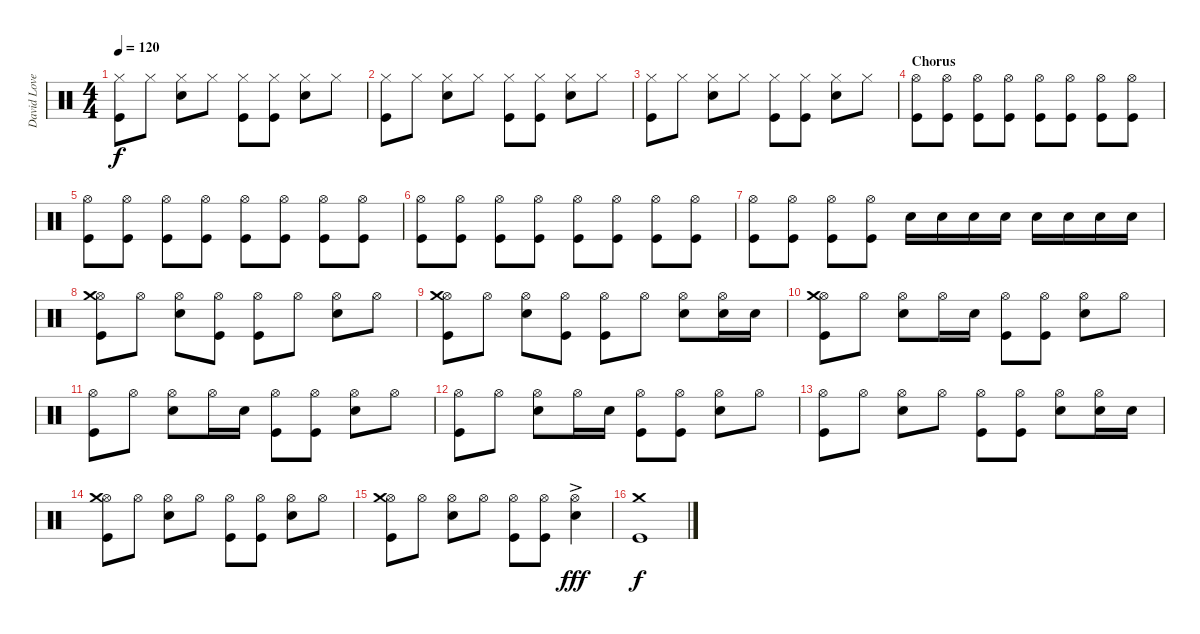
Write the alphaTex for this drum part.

\track ("David Lovering" "David Love") {instrument percussion}
\staff {score}
\articulation defaults
\ts (4 4)
\tempo 120
\clef neutral
\ks c
("Hi-Hat (closed)" "Kick (hit)").8{dy f} "Hi-Hat (closed)".8 ("Hi-Hat (closed)" "Snare (hit) 2").8 "Hi-Hat (closed)".8 ("Hi-Hat (closed)" "Kick (hit)").8 ("Hi-Hat (closed)" "Kick (hit)").8 ("Hi-Hat (closed)" "Snare (hit) 2").8 "Hi-Hat (closed)".8 |
("Hi-Hat (closed)" "Kick (hit)").8 "Hi-Hat (closed)".8 ("Hi-Hat (closed)" "Snare (hit) 2").8 "Hi-Hat (closed)".8 ("Hi-Hat (closed)" "Kick (hit)").8 ("Hi-Hat (closed)" "Kick (hit)").8 ("Hi-Hat (closed)" "Snare (hit) 2").8 "Hi-Hat (closed)".8 |
("Hi-Hat (closed)" "Kick (hit)").8 "Hi-Hat (closed)".8 ("Hi-Hat (closed)" "Snare (hit) 2").8 "Hi-Hat (closed)".8 ("Hi-Hat (closed)" "Kick (hit)").8 ("Hi-Hat (closed)" "Kick (hit)").8 ("Hi-Hat (closed)" "Snare (hit) 2").8 "Hi-Hat (closed)".8 |
\section ("" "Chorus")
("Hi-Hat (open)" "Kick (hit)").8 ("Hi-Hat (open)" "Kick (hit)").8 ("Hi-Hat (open)" "Kick (hit)").8 ("Hi-Hat (open)" "Kick (hit)").8 ("Hi-Hat (open)" "Kick (hit)").8 ("Hi-Hat (open)" "Kick (hit)").8 ("Hi-Hat (open)" "Kick (hit)").8 ("Hi-Hat (open)" "Kick (hit)").8 |
("Hi-Hat (open)" "Kick (hit)").8 ("Hi-Hat (open)" "Kick (hit)").8 ("Hi-Hat (open)" "Kick (hit)").8 ("Hi-Hat (open)" "Kick (hit)").8 ("Hi-Hat (open)" "Kick (hit)").8 ("Hi-Hat (open)" "Kick (hit)").8 ("Hi-Hat (open)" "Kick (hit)").8 ("Hi-Hat (open)" "Kick (hit)").8 |
("Hi-Hat (open)" "Kick (hit)").8 ("Hi-Hat (open)" "Kick (hit)").8 ("Hi-Hat (open)" "Kick (hit)").8 ("Hi-Hat (open)" "Kick (hit)").8 ("Hi-Hat (open)" "Kick (hit)").8 ("Hi-Hat (open)" "Kick (hit)").8 ("Hi-Hat (open)" "Kick (hit)").8 ("Hi-Hat (open)" "Kick (hit)").8 |
("Hi-Hat (open)" "Kick (hit)").8 ("Hi-Hat (open)" "Kick (hit)").8 ("Hi-Hat (open)" "Kick (hit)").8 ("Hi-Hat (open)" "Kick (hit)").8 "Snare (hit) 2".16 "Snare (hit) 2".16 "Snare (hit) 2".16 "Snare (hit) 2".16 "Snare (hit) 2".16 "Snare (hit) 2".16 "Snare (hit) 2".16 "Snare (hit) 2".16 |
("Hi-Hat (open)" "Crash medium (hit)" "Kick (hit)").8 "Hi-Hat (open)".8 ("Hi-Hat (open)" "Snare (hit) 2").8 ("Hi-Hat (open)" "Kick (hit)").8 ("Hi-Hat (open)" "Kick (hit)").8 "Hi-Hat (open)".8 ("Hi-Hat (open)" "Snare (hit) 2").8 "Hi-Hat (open)".8 |
("Hi-Hat (open)" "Crash medium (hit)" "Kick (hit)").8 "Hi-Hat (open)".8 ("Hi-Hat (open)" "Snare (hit) 2").8 ("Hi-Hat (open)" "Kick (hit)").8 ("Hi-Hat (open)" "Kick (hit)").8 "Hi-Hat (open)".8 ("Hi-Hat (open)" "Snare (hit) 2").8 ("Hi-Hat (open)" "Snare (hit) 2").16 "Snare (hit) 2".16 |
("Hi-Hat (open)" "Crash medium (hit)" "Kick (hit)").8 "Hi-Hat (open)".8 ("Hi-Hat (open)" "Snare (hit) 2").8 "Hi-Hat (open)".16 "Snare (hit) 2".16 ("Hi-Hat (open)" "Kick (hit)").8 ("Hi-Hat (open)" "Kick (hit)").8 ("Hi-Hat (open)" "Snare (hit) 2").8 "Hi-Hat (open)".8 |
("Hi-Hat (open)" "Kick (hit)").8 "Hi-Hat (open)".8 ("Hi-Hat (open)" "Snare (hit) 2").8 "Hi-Hat (open)".16 "Snare (hit) 2".16 ("Hi-Hat (open)" "Kick (hit)").8 ("Hi-Hat (open)" "Kick (hit)").8 ("Hi-Hat (open)" "Snare (hit) 2").8 "Hi-Hat (open)".8 |
("Hi-Hat (open)" "Kick (hit)").8 "Hi-Hat (open)".8 ("Hi-Hat (open)" "Snare (hit) 2").8 "Hi-Hat (open)".16 "Snare (hit) 2".16 ("Hi-Hat (open)" "Kick (hit)").8 ("Hi-Hat (open)" "Kick (hit)").8 ("Hi-Hat (open)" "Snare (hit) 2").8 "Hi-Hat (open)".8 |
("Hi-Hat (open)" "Kick (hit)").8 "Hi-Hat (open)".8 ("Hi-Hat (open)" "Snare (hit) 2").8 "Hi-Hat (open)".8 ("Hi-Hat (open)" "Kick (hit)").8 ("Hi-Hat (open)" "Kick (hit)").8 ("Hi-Hat (open)" "Snare (hit) 2").8 ("Hi-Hat (open)" "Snare (hit) 2").16 "Snare (hit) 2".16 |
("Hi-Hat (open)" "Crash medium (hit)" "Kick (hit)").8 "Hi-Hat (open)".8 ("Hi-Hat (open)" "Snare (hit) 2").8 "Hi-Hat (open)".8 ("Hi-Hat (open)" "Kick (hit)").8 ("Hi-Hat (open)" "Kick (hit)").8 ("Hi-Hat (open)" "Snare (hit) 2").8 "Hi-Hat (open)".8 |
("Hi-Hat (open)" "Crash medium (hit)" "Kick (hit)").8 "Hi-Hat (open)".8 ("Hi-Hat (open)" "Snare (hit) 2").8 "Hi-Hat (open)".8 ("Hi-Hat (open)" "Kick (hit)").8 ("Hi-Hat (open)" "Kick (hit)").8 ("Hi-Hat (open)" "Snare (hit) 2"{ac}).4{dy fff} |
("Crash medium (hit)" "Kick (hit)").1{dy f}
